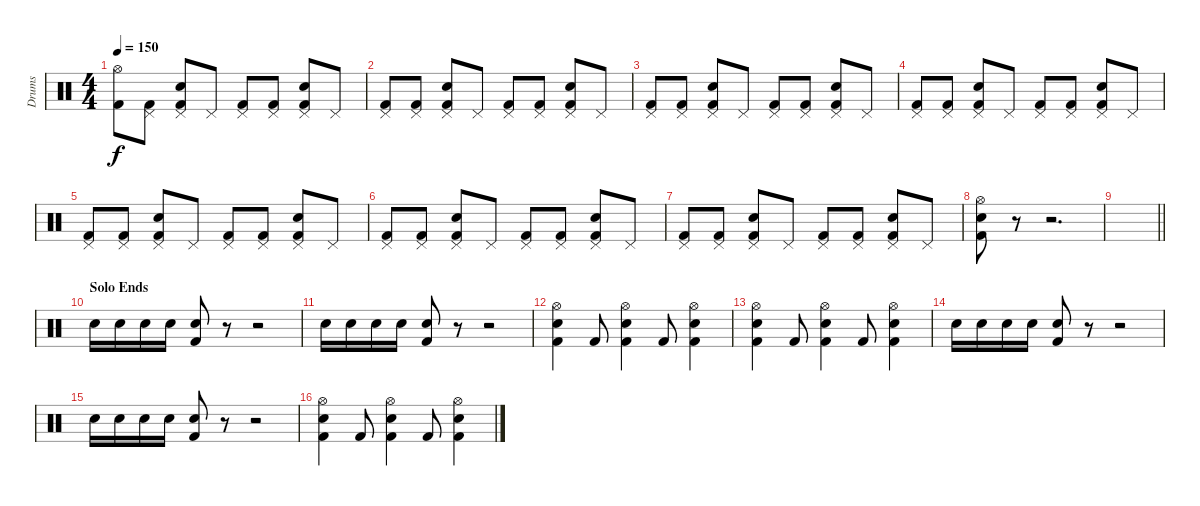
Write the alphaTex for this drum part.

\track ("Drums" "Drums") {instrument percussion}
\staff {score}
\articulation defaults
\ts (4 4)
\tempo 150
\clef neutral
\ks c
("Hi-Hat (open)" "Kick (hit) 2").8{dy f} ("Pedal Hi-Hat (hit)" "Kick (hit) 2").8 ("Pedal Hi-Hat (hit)" "Snare (hit) 2" "Kick (hit) 2").8 "Pedal Hi-Hat (hit)".8 ("Pedal Hi-Hat (hit)" "Kick (hit) 2").8 ("Pedal Hi-Hat (hit)" "Kick (hit) 2").8 ("Pedal Hi-Hat (hit)" "Snare (hit) 2" "Kick (hit) 2").8 "Pedal Hi-Hat (hit)".8 |
("Pedal Hi-Hat (hit)" "Kick (hit) 2").8 ("Pedal Hi-Hat (hit)" "Kick (hit) 2").8 ("Pedal Hi-Hat (hit)" "Snare (hit) 2" "Kick (hit) 2").8 "Pedal Hi-Hat (hit)".8 ("Pedal Hi-Hat (hit)" "Kick (hit) 2").8 ("Pedal Hi-Hat (hit)" "Kick (hit) 2").8 ("Pedal Hi-Hat (hit)" "Snare (hit) 2" "Kick (hit) 2").8 "Pedal Hi-Hat (hit)".8 |
("Pedal Hi-Hat (hit)" "Kick (hit) 2").8 ("Pedal Hi-Hat (hit)" "Kick (hit) 2").8 ("Pedal Hi-Hat (hit)" "Snare (hit) 2" "Kick (hit) 2").8 "Pedal Hi-Hat (hit)".8 ("Pedal Hi-Hat (hit)" "Kick (hit) 2").8 ("Pedal Hi-Hat (hit)" "Kick (hit) 2").8 ("Pedal Hi-Hat (hit)" "Snare (hit) 2" "Kick (hit) 2").8 "Pedal Hi-Hat (hit)".8 |
("Pedal Hi-Hat (hit)" "Kick (hit) 2").8 ("Pedal Hi-Hat (hit)" "Kick (hit) 2").8 ("Pedal Hi-Hat (hit)" "Snare (hit) 2" "Kick (hit) 2").8 "Pedal Hi-Hat (hit)".8 ("Pedal Hi-Hat (hit)" "Kick (hit) 2").8 ("Pedal Hi-Hat (hit)" "Kick (hit) 2").8 ("Pedal Hi-Hat (hit)" "Snare (hit) 2" "Kick (hit) 2").8 "Pedal Hi-Hat (hit)".8 |
("Pedal Hi-Hat (hit)" "Kick (hit) 2").8 ("Pedal Hi-Hat (hit)" "Kick (hit) 2").8 ("Pedal Hi-Hat (hit)" "Snare (hit) 2" "Kick (hit) 2").8 "Pedal Hi-Hat (hit)".8 ("Pedal Hi-Hat (hit)" "Kick (hit) 2").8 ("Pedal Hi-Hat (hit)" "Kick (hit) 2").8 ("Pedal Hi-Hat (hit)" "Snare (hit) 2" "Kick (hit) 2").8 "Pedal Hi-Hat (hit)".8 |
("Pedal Hi-Hat (hit)" "Kick (hit) 2").8 ("Pedal Hi-Hat (hit)" "Kick (hit) 2").8 ("Pedal Hi-Hat (hit)" "Snare (hit) 2" "Kick (hit) 2").8 "Pedal Hi-Hat (hit)".8 ("Pedal Hi-Hat (hit)" "Kick (hit) 2").8 ("Pedal Hi-Hat (hit)" "Kick (hit) 2").8 ("Pedal Hi-Hat (hit)" "Snare (hit) 2" "Kick (hit) 2").8 "Pedal Hi-Hat (hit)".8 |
("Pedal Hi-Hat (hit)" "Kick (hit) 2").8 ("Pedal Hi-Hat (hit)" "Kick (hit) 2").8 ("Pedal Hi-Hat (hit)" "Snare (hit) 2" "Kick (hit) 2").8 "Pedal Hi-Hat (hit)".8 ("Pedal Hi-Hat (hit)" "Kick (hit) 2").8 ("Pedal Hi-Hat (hit)" "Kick (hit) 2").8 ("Pedal Hi-Hat (hit)" "Snare (hit) 2" "Kick (hit) 2").8 "Pedal Hi-Hat (hit)".8 |
("Hi-Hat (open)" "Snare (hit) 2" "Kick (hit) 2").8 r.8 r.2{d} |
\barLineRight lightlight
|
\section ("" "Solo Ends")
"Snare (hit) 2".16 "Snare (hit) 2".16 "Snare (hit) 2".16 "Snare (hit) 2".16 ("Snare (hit) 2" "Kick (hit) 2").8 r.8 r.2 |
"Snare (hit) 2".16 "Snare (hit) 2".16 "Snare (hit) 2".16 "Snare (hit) 2".16 ("Snare (hit) 2" "Kick (hit) 2").8 r.8 r.2 |
("Hi-Hat (open)" "Snare (hit) 2" "Kick (hit) 2").4 "Kick (hit) 2".8 ("Hi-Hat (open)" "Snare (hit) 2" "Kick (hit) 2").4 "Kick (hit) 2".8 ("Hi-Hat (open)" "Snare (hit) 2" "Kick (hit) 2").4 |
("Hi-Hat (open)" "Snare (hit) 2" "Kick (hit) 2").4 "Kick (hit) 2".8 ("Hi-Hat (open)" "Snare (hit) 2" "Kick (hit) 2").4 "Kick (hit) 2".8 ("Hi-Hat (open)" "Snare (hit) 2" "Kick (hit) 2").4 |
"Snare (hit) 2".16 "Snare (hit) 2".16 "Snare (hit) 2".16 "Snare (hit) 2".16 ("Snare (hit) 2" "Kick (hit) 2").8 r.8 r.2 |
"Snare (hit) 2".16 "Snare (hit) 2".16 "Snare (hit) 2".16 "Snare (hit) 2".16 ("Snare (hit) 2" "Kick (hit) 2").8 r.8 r.2 |
("Hi-Hat (open)" "Snare (hit) 2" "Kick (hit) 2").4 "Kick (hit) 2".8 ("Hi-Hat (open)" "Snare (hit) 2" "Kick (hit) 2").4 "Kick (hit) 2".8 ("Hi-Hat (open)" "Snare (hit) 2" "Kick (hit) 2").4
